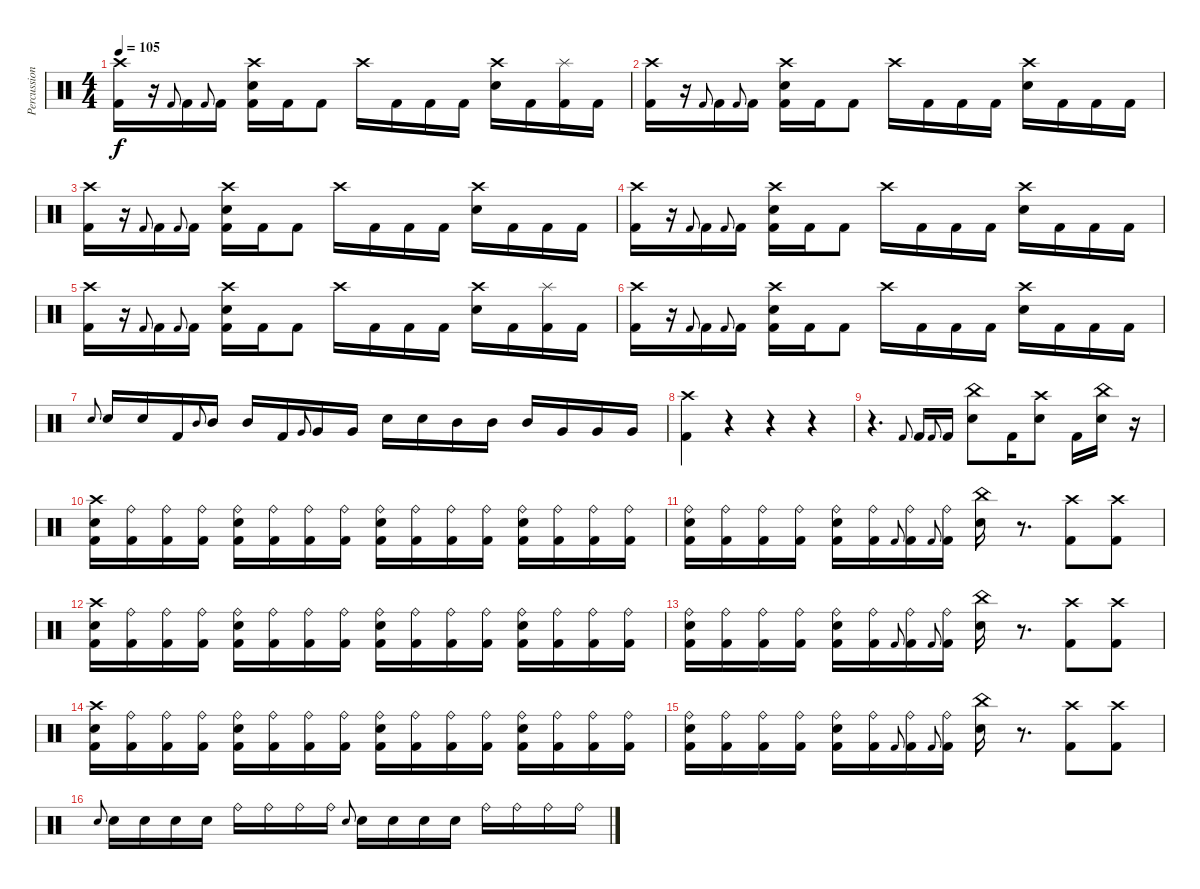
\track ("Percussion" "Percussion") {instrument percussion}
\staff {score}
\articulation defaults
\ts (4 4)
\tempo 105
\clef neutral
\ks c
("Crash high (hit)" "Kick (hit) 2").16{dy f} r.16 "Kick (hit) 2".8{gr onbeat} "Kick (hit) 2".16 "Kick (hit) 2".8{gr onbeat} "Kick (hit) 2".16 ("Crash high (hit)" "Snare (hit) 2" "Kick (hit) 2").16 "Kick (hit) 2".16 "Kick (hit) 2".8 "Crash high (hit)".16 "Kick (hit) 2".16 "Kick (hit) 2".16 "Kick (hit) 2".16 ("Crash high (hit)" "Snare (hit) 2").16 "Kick (hit) 2".16 ("Splash (hit)" "Kick (hit) 2").16 "Kick (hit) 2".16 |
("Crash high (hit)" "Kick (hit) 2").16 r.16 "Kick (hit) 2".8{gr onbeat} "Kick (hit) 2".16 "Kick (hit) 2".8{gr onbeat} "Kick (hit) 2".16 ("Crash high (hit)" "Snare (hit) 2" "Kick (hit) 2").16 "Kick (hit) 2".16 "Kick (hit) 2".8 "Crash high (hit)".16 "Kick (hit) 2".16 "Kick (hit) 2".16 "Kick (hit) 2".16 ("Crash high (hit)" "Snare (hit) 2").16 "Kick (hit) 2".16 "Kick (hit) 2".16 "Kick (hit) 2".16 |
("Crash high (hit)" "Kick (hit) 2").16 r.16 "Kick (hit) 2".8{gr onbeat} "Kick (hit) 2".16 "Kick (hit) 2".8{gr onbeat} "Kick (hit) 2".16 ("Crash high (hit)" "Snare (hit) 2" "Kick (hit) 2").16 "Kick (hit) 2".16 "Kick (hit) 2".8 "Crash high (hit)".16 "Kick (hit) 2".16 "Kick (hit) 2".16 "Kick (hit) 2".16 ("Crash high (hit)" "Snare (hit) 2").16 "Kick (hit) 2".16 "Kick (hit) 2".16 "Kick (hit) 2".16 |
("Crash high (hit)" "Kick (hit) 2").16 r.16 "Kick (hit) 2".8{gr onbeat} "Kick (hit) 2".16 "Kick (hit) 2".8{gr onbeat} "Kick (hit) 2".16 ("Crash high (hit)" "Snare (hit) 2" "Kick (hit) 2").16 "Kick (hit) 2".16 "Kick (hit) 2".8 "Crash high (hit)".16 "Kick (hit) 2".16 "Kick (hit) 2".16 "Kick (hit) 2".16 ("Crash high (hit)" "Snare (hit) 2").16 "Kick (hit) 2".16 "Kick (hit) 2".16 "Kick (hit) 2".16 |
("Crash high (hit)" "Kick (hit) 2").16 r.16 "Kick (hit) 2".8{gr onbeat} "Kick (hit) 2".16 "Kick (hit) 2".8{gr onbeat} "Kick (hit) 2".16 ("Crash high (hit)" "Snare (hit) 2" "Kick (hit) 2").16 "Kick (hit) 2".16 "Kick (hit) 2".8 "Crash high (hit)".16 "Kick (hit) 2".16 "Kick (hit) 2".16 "Kick (hit) 2".16 ("Crash high (hit)" "Snare (hit) 2").16 "Kick (hit) 2".16 ("Splash (hit)" "Kick (hit) 2").16 "Kick (hit) 2".16 |
("Crash high (hit)" "Kick (hit) 2").16 r.16 "Kick (hit) 2".8{gr onbeat} "Kick (hit) 2".16 "Kick (hit) 2".8{gr onbeat} "Kick (hit) 2".16 ("Crash high (hit)" "Snare (hit) 2" "Kick (hit) 2").16 "Kick (hit) 2".16 "Kick (hit) 2".8 "Crash high (hit)".16 "Kick (hit) 2".16 "Kick (hit) 2".16 "Kick (hit) 2".16 ("Crash high (hit)" "Snare (hit) 2").16 "Kick (hit) 2".16 "Kick (hit) 2".16 "Kick (hit) 2".16 |
"Snare (hit) 2".8{gr onbeat} "Snare (hit) 2".16 "Snare (hit) 2".16 "Kick (hit) 2".16 "Mid Tom (hit)".8{gr onbeat} "Mid Tom (hit)".16 "Mid Tom (hit)".16 "Kick (hit) 2".16 "Very Low Tom (hit)".8{gr onbeat} "Very Low Tom (hit)".16 "Very Low Tom (hit)".16 "Snare (hit) 2".16 "Snare (hit) 2".16 "Mid Tom (hit)".16 "Mid Tom (hit)".16 "Mid Tom (hit)".16 "Very Low Tom (hit)".16 "Very Low Tom (hit)".16 "Very Low Tom (hit)".16 |
("Crash high (hit)" "Kick (hit) 2").4 r.4 r.4 r.4 |
r.4{d} "Kick (hit) 2".8{gr onbeat} "Kick (hit) 2".16 "Kick (hit) 2".8{gr onbeat} "Kick (hit) 2".16 ("China (hit)" "Snare (hit) 2").8 "Kick (hit) 2".16 ("Crash high (hit)" "Snare (hit) 2").8 "Kick (hit) 2".16 ("China (hit)" "Snare (hit) 2").16 r.16 |
("Crash high (hit)" "Snare (hit) 2" "Kick (hit) 2").16 ("Ride (bell)" "Kick (hit) 2").16 ("Ride (bell)" "Kick (hit) 2").16 ("Ride (bell)" "Kick (hit) 2").16 ("Ride (bell)" "Snare (hit) 2" "Kick (hit) 2").16 ("Ride (bell)" "Kick (hit) 2").16 ("Ride (bell)" "Kick (hit) 2").16 ("Ride (bell)" "Kick (hit) 2").16 ("Ride (bell)" "Snare (hit) 2" "Kick (hit) 2").16 ("Ride (bell)" "Kick (hit) 2").16 ("Ride (bell)" "Kick (hit) 2").16 ("Ride (bell)" "Kick (hit) 2").16 ("Ride (bell)" "Snare (hit) 2" "Kick (hit) 2").16 ("Ride (bell)" "Kick (hit) 2").16 ("Ride (bell)" "Kick (hit) 2").16 ("Ride (bell)" "Kick (hit) 2").16 |
("Ride (bell)" "Snare (hit) 2" "Kick (hit) 2").16 ("Ride (bell)" "Kick (hit) 2").16 ("Ride (bell)" "Kick (hit) 2").16 ("Ride (bell)" "Kick (hit) 2").16 ("Ride (bell)" "Snare (hit) 2" "Kick (hit) 2").16 ("Ride (bell)" "Kick (hit) 2").16 "Kick (hit) 2".8{gr onbeat} ("Ride (bell)" "Kick (hit) 2").16 "Kick (hit) 2".8{gr onbeat} ("Ride (bell)" "Kick (hit) 2").16 ("China (hit)" "Snare (hit) 2").16 r.8{d} ("Crash high (hit)" "Kick (hit) 2").8 ("Crash high (hit)" "Kick (hit) 2").8 |
("Crash high (hit)" "Snare (hit) 2" "Kick (hit) 2").16 ("Ride (bell)" "Kick (hit) 2").16 ("Ride (bell)" "Kick (hit) 2").16 ("Ride (bell)" "Kick (hit) 2").16 ("Ride (bell)" "Snare (hit) 2" "Kick (hit) 2").16 ("Ride (bell)" "Kick (hit) 2").16 ("Ride (bell)" "Kick (hit) 2").16 ("Ride (bell)" "Kick (hit) 2").16 ("Ride (bell)" "Snare (hit) 2" "Kick (hit) 2").16 ("Ride (bell)" "Kick (hit) 2").16 ("Ride (bell)" "Kick (hit) 2").16 ("Ride (bell)" "Kick (hit) 2").16 ("Ride (bell)" "Snare (hit) 2" "Kick (hit) 2").16 ("Ride (bell)" "Kick (hit) 2").16 ("Ride (bell)" "Kick (hit) 2").16 ("Ride (bell)" "Kick (hit) 2").16 |
("Ride (bell)" "Snare (hit) 2" "Kick (hit) 2").16 ("Ride (bell)" "Kick (hit) 2").16 ("Ride (bell)" "Kick (hit) 2").16 ("Ride (bell)" "Kick (hit) 2").16 ("Ride (bell)" "Snare (hit) 2" "Kick (hit) 2").16 ("Ride (bell)" "Kick (hit) 2").16 "Kick (hit) 2".8{gr onbeat} ("Ride (bell)" "Kick (hit) 2").16 "Kick (hit) 2".8{gr onbeat} ("Ride (bell)" "Kick (hit) 2").16 ("China (hit)" "Snare (hit) 2").16 r.8{d} ("Crash high (hit)" "Kick (hit) 2").8 ("Crash high (hit)" "Kick (hit) 2").8 |
("Crash high (hit)" "Snare (hit) 2" "Kick (hit) 2").16 ("Ride (bell)" "Kick (hit) 2").16 ("Ride (bell)" "Kick (hit) 2").16 ("Ride (bell)" "Kick (hit) 2").16 ("Ride (bell)" "Snare (hit) 2" "Kick (hit) 2").16 ("Ride (bell)" "Kick (hit) 2").16 ("Ride (bell)" "Kick (hit) 2").16 ("Ride (bell)" "Kick (hit) 2").16 ("Ride (bell)" "Snare (hit) 2" "Kick (hit) 2").16 ("Ride (bell)" "Kick (hit) 2").16 ("Ride (bell)" "Kick (hit) 2").16 ("Ride (bell)" "Kick (hit) 2").16 ("Ride (bell)" "Snare (hit) 2" "Kick (hit) 2").16 ("Ride (bell)" "Kick (hit) 2").16 ("Ride (bell)" "Kick (hit) 2").16 ("Ride (bell)" "Kick (hit) 2").16 |
("Ride (bell)" "Snare (hit) 2" "Kick (hit) 2").16 ("Ride (bell)" "Kick (hit) 2").16 ("Ride (bell)" "Kick (hit) 2").16 ("Ride (bell)" "Kick (hit) 2").16 ("Ride (bell)" "Snare (hit) 2" "Kick (hit) 2").16 ("Ride (bell)" "Kick (hit) 2").16 "Kick (hit) 2".8{gr onbeat} ("Ride (bell)" "Kick (hit) 2").16 "Kick (hit) 2".8{gr onbeat} ("Ride (bell)" "Kick (hit) 2").16 ("China (hit)" "Snare (hit) 2").16 r.8{d} ("Crash high (hit)" "Kick (hit) 2").8 ("Crash high (hit)" "Kick (hit) 2").8 |
"Snare (hit) 2".8{gr onbeat} "Snare (hit) 2".16 "Snare (hit) 2".16 "Snare (hit) 2".16 "Snare (hit) 2".16 "Ride (bell)".16 "Ride (bell)".16 "Ride (bell)".16 "Ride (bell)".16 "Snare (hit) 2".8{gr onbeat} "Snare (hit) 2".16 "Snare (hit) 2".16 "Snare (hit) 2".16 "Snare (hit) 2".16 "Ride (bell)".16 "Ride (bell)".16 "Ride (bell)".16 "Ride (bell)".16
